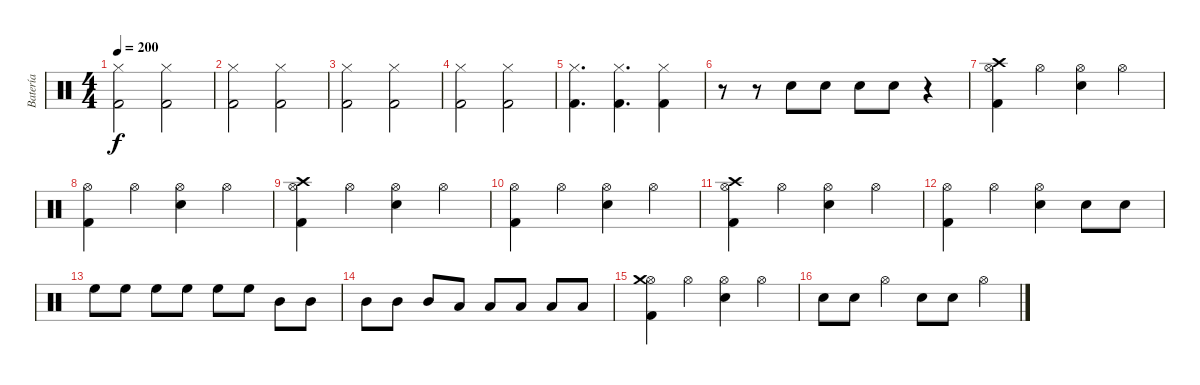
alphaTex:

\track ("Batería" "Batería") {instrument percussion}
\staff {score}
\articulation defaults
\ts (4 4)
\tempo 200
\clef neutral
\ks c
("Kick (hit) 2" "Hi-Hat (closed)").2{dy f} ("Kick (hit) 2" "Hi-Hat (closed)").2 |
("Kick (hit) 2" "Hi-Hat (closed)").2 ("Kick (hit) 2" "Hi-Hat (closed)").2 |
("Kick (hit) 2" "Hi-Hat (closed)").2 ("Kick (hit) 2" "Hi-Hat (closed)").2 |
("Kick (hit) 2" "Hi-Hat (closed)").2 ("Kick (hit) 2" "Hi-Hat (closed)").2 |
("Kick (hit) 2" "Hi-Hat (closed)").4{d} ("Kick (hit) 2" "Hi-Hat (closed)").4{d} ("Kick (hit) 2" "Hi-Hat (closed)").4 |
r.8 r.8 "Electric Snare (hit)".8 "Electric Snare (hit)".8 "Electric Snare (hit)".8 "Electric Snare (hit)".8 r.4 |
("Hi-Hat (open)" "Kick (hit) 2" "Crash high (hit)").4 "Hi-Hat (open)".4 ("Hi-Hat (open)" "Electric Snare (hit)").4 "Hi-Hat (open)".4 |
("Hi-Hat (open)" "Kick (hit) 2").4 "Hi-Hat (open)".4 ("Hi-Hat (open)" "Electric Snare (hit)").4 "Hi-Hat (open)".4 |
("Hi-Hat (open)" "Kick (hit) 2" "Crash high (hit)").4 "Hi-Hat (open)".4 ("Hi-Hat (open)" "Electric Snare (hit)").4 "Hi-Hat (open)".4 |
("Hi-Hat (open)" "Kick (hit) 2").4 "Hi-Hat (open)".4 ("Hi-Hat (open)" "Electric Snare (hit)").4 "Hi-Hat (open)".4 |
("Hi-Hat (open)" "Kick (hit) 2" "Crash high (hit)").4 "Hi-Hat (open)".4 ("Hi-Hat (open)" "Electric Snare (hit)").4 "Hi-Hat (open)".4 |
("Hi-Hat (open)" "Kick (hit) 2").4 "Hi-Hat (open)".4 ("Hi-Hat (open)" "Electric Snare (hit)").4 "Electric Snare (hit)".8 "Electric Snare (hit)".8 |
"High Floor Tom (hit)".8 "High Floor Tom (hit)".8 "High Floor Tom (hit)".8 "High Floor Tom (hit)".8 "High Floor Tom (hit)".8 "High Floor Tom (hit)".8 "Mid Tom (hit)".8 "Mid Tom (hit)".8 |
"Mid Tom (hit)".8 "Mid Tom (hit)".8 "Mid Tom (hit)".8 "Low Tom (hit)".8 "Low Tom (hit)".8 "Low Tom (hit)".8 "Low Tom (hit)".8 "Low Tom (hit)".8 |
("Kick (hit) 2" "Hi-Hat (open)" "Crash medium (hit)").4 "Hi-Hat (open)".4 ("Electric Snare (hit)" "Hi-Hat (open)").4 "Hi-Hat (open)".4 |
"Electric Snare (hit)".8 "Electric Snare (hit)".8 "Hi-Hat (open)".4 "Electric Snare (hit)".8 "Electric Snare (hit)".8 "Hi-Hat (open)".4
